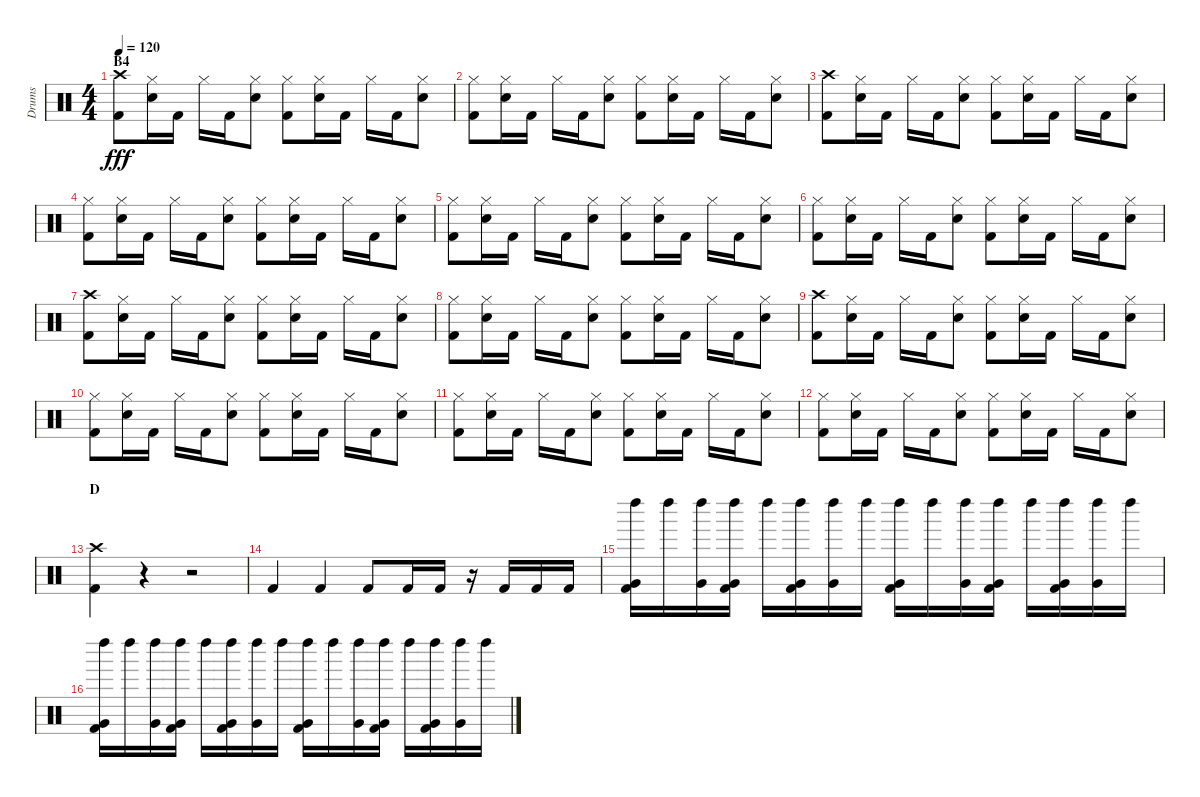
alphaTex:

\track ("Drums" "Drums") {instrument percussion}
\staff {score}
\articulation defaults
\ts (4 4)
\section ("" "B4")
\tempo 120
\clef neutral
\ks c
("Crash high (hit)" "Kick (hit) 2").8{dy fff} ("Hi-Hat (closed)" "Snare (hit) 2").16 "Kick (hit) 2".16 "Hi-Hat (closed)".16 "Kick (hit) 2".16 ("Hi-Hat (closed)" "Snare (hit) 2").8 ("Hi-Hat (closed)" "Kick (hit) 2").8 ("Hi-Hat (closed)" "Snare (hit) 2").16 "Kick (hit) 2".16 "Hi-Hat (closed)".16 "Kick (hit) 2".16 ("Hi-Hat (closed)" "Snare (hit) 2").8 |
("Hi-Hat (closed)" "Kick (hit) 2").8 ("Hi-Hat (closed)" "Snare (hit) 2").16 "Kick (hit) 2".16 "Hi-Hat (closed)".16 "Kick (hit) 2".16 ("Hi-Hat (closed)" "Snare (hit) 2").8 ("Hi-Hat (closed)" "Kick (hit) 2").8 ("Hi-Hat (closed)" "Snare (hit) 2").16 "Kick (hit) 2".16 "Hi-Hat (closed)".16 "Kick (hit) 2".16 ("Hi-Hat (closed)" "Snare (hit) 2").8 |
("Crash high (hit)" "Kick (hit) 2").8 ("Hi-Hat (closed)" "Snare (hit) 2").16 "Kick (hit) 2".16 "Hi-Hat (closed)".16 "Kick (hit) 2".16 ("Hi-Hat (closed)" "Snare (hit) 2").8 ("Hi-Hat (closed)" "Kick (hit) 2").8 ("Hi-Hat (closed)" "Snare (hit) 2").16 "Kick (hit) 2".16 "Hi-Hat (closed)".16 "Kick (hit) 2".16 ("Hi-Hat (closed)" "Snare (hit) 2").8 |
("Hi-Hat (closed)" "Kick (hit) 2").8 ("Hi-Hat (closed)" "Snare (hit) 2").16 "Kick (hit) 2".16 "Hi-Hat (closed)".16 "Kick (hit) 2".16 ("Hi-Hat (closed)" "Snare (hit) 2").8 ("Hi-Hat (closed)" "Kick (hit) 2").8 ("Hi-Hat (closed)" "Snare (hit) 2").16 "Kick (hit) 2".16 "Hi-Hat (closed)".16 "Kick (hit) 2".16 ("Hi-Hat (closed)" "Snare (hit) 2").8 |
("Hi-Hat (closed)" "Kick (hit) 2").8 ("Hi-Hat (closed)" "Snare (hit) 2").16 "Kick (hit) 2".16 "Hi-Hat (closed)".16 "Kick (hit) 2".16 ("Hi-Hat (closed)" "Snare (hit) 2").8 ("Hi-Hat (closed)" "Kick (hit) 2").8 ("Hi-Hat (closed)" "Snare (hit) 2").16 "Kick (hit) 2".16 "Hi-Hat (closed)".16 "Kick (hit) 2".16 ("Hi-Hat (closed)" "Snare (hit) 2").8 |
("Hi-Hat (closed)" "Kick (hit) 2").8 ("Hi-Hat (closed)" "Snare (hit) 2").16 "Kick (hit) 2".16 "Hi-Hat (closed)".16 "Kick (hit) 2".16 ("Hi-Hat (closed)" "Snare (hit) 2").8 ("Hi-Hat (closed)" "Kick (hit) 2").8 ("Hi-Hat (closed)" "Snare (hit) 2").16 "Kick (hit) 2".16 "Hi-Hat (closed)".16 "Kick (hit) 2".16 ("Hi-Hat (closed)" "Snare (hit) 2").8 |
("Crash high (hit)" "Kick (hit) 2").8 ("Hi-Hat (closed)" "Snare (hit) 2").16 "Kick (hit) 2".16 "Hi-Hat (closed)".16 "Kick (hit) 2".16 ("Hi-Hat (closed)" "Snare (hit) 2").8 ("Hi-Hat (closed)" "Kick (hit) 2").8 ("Hi-Hat (closed)" "Snare (hit) 2").16 "Kick (hit) 2".16 "Hi-Hat (closed)".16 "Kick (hit) 2".16 ("Hi-Hat (closed)" "Snare (hit) 2").8 |
("Hi-Hat (closed)" "Kick (hit) 2").8 ("Hi-Hat (closed)" "Snare (hit) 2").16 "Kick (hit) 2".16 "Hi-Hat (closed)".16 "Kick (hit) 2".16 ("Hi-Hat (closed)" "Snare (hit) 2").8 ("Hi-Hat (closed)" "Kick (hit) 2").8 ("Hi-Hat (closed)" "Snare (hit) 2").16 "Kick (hit) 2".16 "Hi-Hat (closed)".16 "Kick (hit) 2".16 ("Hi-Hat (closed)" "Snare (hit) 2").8 |
("Crash high (hit)" "Kick (hit) 2").8 ("Hi-Hat (closed)" "Snare (hit) 2").16 "Kick (hit) 2".16 "Hi-Hat (closed)".16 "Kick (hit) 2".16 ("Hi-Hat (closed)" "Snare (hit) 2").8 ("Hi-Hat (closed)" "Kick (hit) 2").8 ("Hi-Hat (closed)" "Snare (hit) 2").16 "Kick (hit) 2".16 "Hi-Hat (closed)".16 "Kick (hit) 2".16 ("Hi-Hat (closed)" "Snare (hit) 2").8 |
("Hi-Hat (closed)" "Kick (hit) 2").8 ("Hi-Hat (closed)" "Snare (hit) 2").16 "Kick (hit) 2".16 "Hi-Hat (closed)".16 "Kick (hit) 2".16 ("Hi-Hat (closed)" "Snare (hit) 2").8 ("Hi-Hat (closed)" "Kick (hit) 2").8 ("Hi-Hat (closed)" "Snare (hit) 2").16 "Kick (hit) 2".16 "Hi-Hat (closed)".16 "Kick (hit) 2".16 ("Hi-Hat (closed)" "Snare (hit) 2").8 |
("Hi-Hat (closed)" "Kick (hit) 2").8 ("Hi-Hat (closed)" "Snare (hit) 2").16 "Kick (hit) 2".16 "Hi-Hat (closed)".16 "Kick (hit) 2".16 ("Hi-Hat (closed)" "Snare (hit) 2").8 ("Hi-Hat (closed)" "Kick (hit) 2").8 ("Hi-Hat (closed)" "Snare (hit) 2").16 "Kick (hit) 2".16 "Hi-Hat (closed)".16 "Kick (hit) 2".16 ("Hi-Hat (closed)" "Snare (hit) 2").8 |
("Hi-Hat (closed)" "Kick (hit) 2").8 ("Hi-Hat (closed)" "Snare (hit) 2").16 "Kick (hit) 2".16 "Hi-Hat (closed)".16 "Kick (hit) 2".16 ("Hi-Hat (closed)" "Snare (hit) 2").8 ("Hi-Hat (closed)" "Kick (hit) 2").8 ("Hi-Hat (closed)" "Snare (hit) 2").16 "Kick (hit) 2".16 "Hi-Hat (closed)".16 "Kick (hit) 2".16 ("Hi-Hat (closed)" "Snare (hit) 2").8 |
\section ("" "D")
("Crash high (hit)" "Kick (hit) 2").4 r.4 r.2 |
"Kick (hit) 2".4 "Kick (hit) 2".4 "Kick (hit) 2".8 "Kick (hit) 2".16 "Kick (hit) 2".16 r.16 "Kick (hit) 2".16 "Kick (hit) 2".16 "Kick (hit) 2".16 |
("Left Maraca (hit)" "Very Low Tom (hit)" "Kick (hit) 2").16 "Left Maraca (hit)".16 ("Left Maraca (hit)" "Very Low Tom (hit)").16 ("Left Maraca (hit)" "Very Low Tom (hit)" "Kick (hit) 2").16 "Left Maraca (hit)".16 ("Left Maraca (hit)" "Very Low Tom (hit)" "Kick (hit) 2").16 ("Left Maraca (hit)" "Very Low Tom (hit)").16 "Left Maraca (hit)".16 ("Left Maraca (hit)" "Very Low Tom (hit)" "Kick (hit) 2").16 "Left Maraca (hit)".16 ("Left Maraca (hit)" "Very Low Tom (hit)").16 ("Left Maraca (hit)" "Very Low Tom (hit)" "Kick (hit) 2").16 "Left Maraca (hit)".16 ("Left Maraca (hit)" "Very Low Tom (hit)" "Kick (hit) 2").16 ("Left Maraca (hit)" "Very Low Tom (hit)").16 "Left Maraca (hit)".16 |
("Left Maraca (hit)" "Very Low Tom (hit)" "Kick (hit) 2").16 "Left Maraca (hit)".16 ("Left Maraca (hit)" "Very Low Tom (hit)").16 ("Left Maraca (hit)" "Very Low Tom (hit)" "Kick (hit) 2").16 "Left Maraca (hit)".16 ("Left Maraca (hit)" "Very Low Tom (hit)" "Kick (hit) 2").16 ("Left Maraca (hit)" "Very Low Tom (hit)").16 "Left Maraca (hit)".16 ("Left Maraca (hit)" "Very Low Tom (hit)" "Kick (hit) 2").16 "Left Maraca (hit)".16 ("Left Maraca (hit)" "Very Low Tom (hit)").16 ("Left Maraca (hit)" "Very Low Tom (hit)" "Kick (hit) 2").16 "Left Maraca (hit)".16 ("Left Maraca (hit)" "Very Low Tom (hit)" "Kick (hit) 2").16 ("Left Maraca (hit)" "Very Low Tom (hit)").16 "Left Maraca (hit)".16
